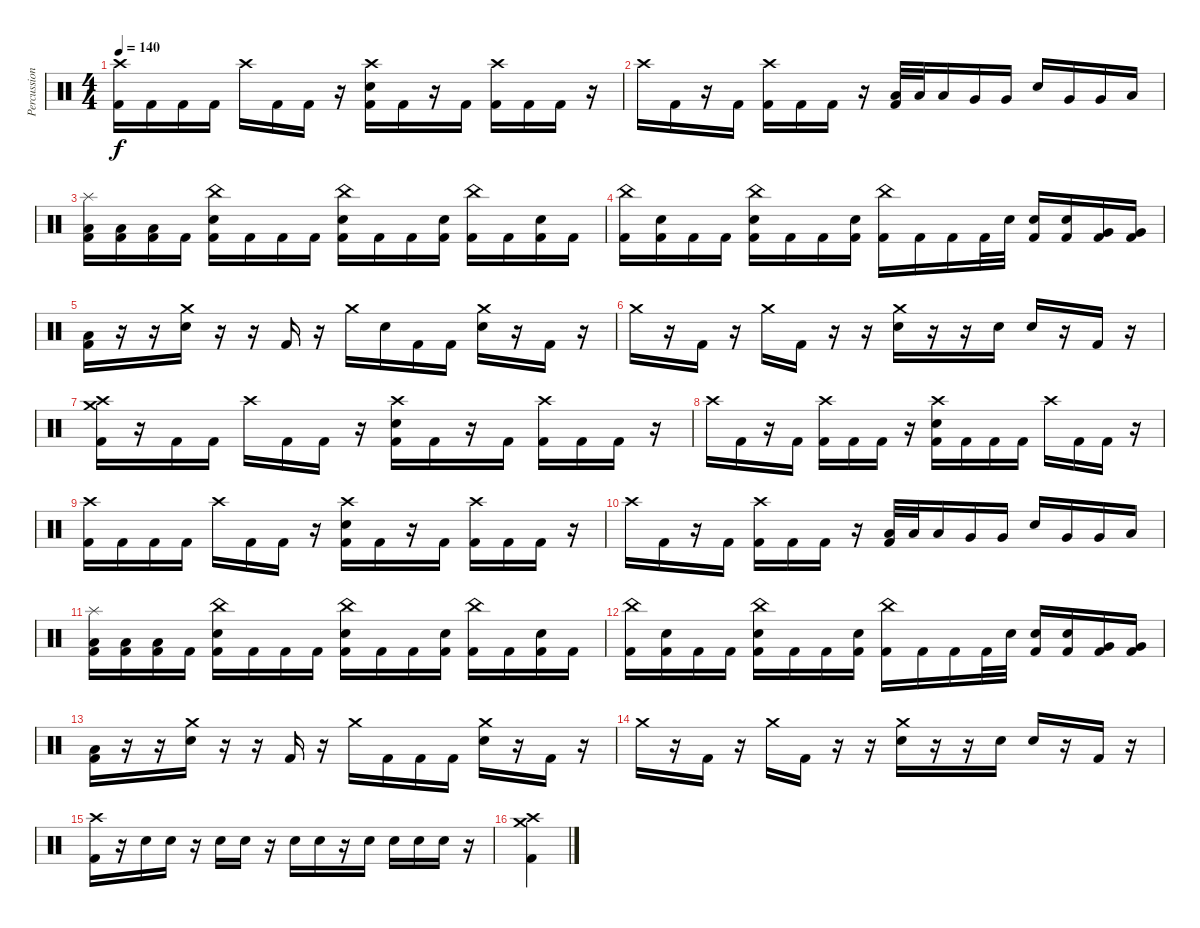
\track ("Percussion" "Percussion") {instrument percussion}
\staff {score}
\articulation defaults
\ts (4 4)
\tempo 140
\clef neutral
\ks c
("Crash high (hit)" "Kick (hit) 2").16{dy f} "Kick (hit) 2".16 "Kick (hit) 2".16 "Kick (hit) 2".16 "Crash high (hit)".16 "Kick (hit) 2".16 "Kick (hit) 2".16 r.16 ("Crash high (hit)" "Electric Snare (hit)" "Kick (hit) 2").16 "Kick (hit) 2".16 r.16 "Kick (hit) 2".16 ("Crash high (hit)" "Kick (hit) 2").16 "Kick (hit) 2".16 "Kick (hit) 2".16 r.16 |
"Crash high (hit)".16 "Kick (hit) 2".16 r.16 "Kick (hit) 2".16 ("Crash high (hit)" "Kick (hit) 2").16 "Kick (hit) 2".16 "Kick (hit) 2".16 r.16 ("Low Tom (hit)" "Kick (hit) 2").32 "Low Tom (hit)".32 "Low Tom (hit)".16 "Very Low Tom (hit)".16 "Very Low Tom (hit)".16 "Electric Snare (hit)".16 "Very Low Tom (hit)".16 "Very Low Tom (hit)".16 "Low Floor Tom (hit)".16 |
("Splash (hit)" "Low Floor Tom (hit)" "Kick (hit) 2").16 ("Low Floor Tom (hit)" "Kick (hit) 2").16 ("Low Floor Tom (hit)" "Kick (hit) 2").16 "Kick (hit) 2".16 ("China (hit)" "Electric Snare (hit)" "Kick (hit) 2").16 "Kick (hit) 2".16 "Kick (hit) 2".16 "Kick (hit) 2".16 ("China (hit)" "Electric Snare (hit)" "Kick (hit) 2").16 "Kick (hit) 2".16 "Kick (hit) 2".16 ("Electric Snare (hit)" "Kick (hit) 2").16 ("China (hit)" "Kick (hit) 2").16 "Kick (hit) 2".16 ("Electric Snare (hit)" "Kick (hit) 2").16 "Kick (hit) 2".16 |
("China (hit)" "Kick (hit) 2").16 ("Electric Snare (hit)" "Kick (hit) 2").16 "Kick (hit) 2".16 "Kick (hit) 2".16 ("China (hit)" "Electric Snare (hit)" "Kick (hit) 2").16 "Kick (hit) 2".16 "Kick (hit) 2".16 ("Electric Snare (hit)" "Kick (hit) 2").16 ("China (hit)" "Kick (hit) 2").16 "Kick (hit) 2".16 "Kick (hit) 2".16 "Kick (hit) 2".32 "Electric Snare (hit)".32 ("Electric Snare (hit)" "Kick (hit) 2").16 ("Electric Snare (hit)" "Kick (hit) 2").16 ("Very Low Tom (hit)" "Kick (hit) 2").16 ("Very Low Tom (hit)" "Kick (hit) 2").16 |
("Low Floor Tom (hit)" "Kick (hit) 2").16 r.16 r.16 ("Crash medium (hit)" "Electric Snare (hit)").16 r.16 r.16 "Kick (hit) 2".16 r.16 "Crash medium (hit)".16 "Electric Snare (hit)".16 "Kick (hit) 2".16 "Kick (hit) 2".16 ("Crash medium (hit)" "Electric Snare (hit)").16 r.16 "Kick (hit) 2".16 r.16 |
"Crash medium (hit)".16 r.16 "Kick (hit) 2".16 r.16 "Crash medium (hit)".16 "Kick (hit) 2".16 r.16 r.16 ("Crash medium (hit)" "Electric Snare (hit)").16 r.16 r.16 "Electric Snare (hit)".16 "Electric Snare (hit)".16 r.16 "Kick (hit) 2".16 r.16 |
("Crash high (hit)" "Crash medium (hit)" "Kick (hit) 2").16 r.16 "Kick (hit) 2".16 "Kick (hit) 2".16 "Crash high (hit)".16 "Kick (hit) 2".16 "Kick (hit) 2".16 r.16 ("Crash high (hit)" "Electric Snare (hit)" "Kick (hit) 2").16 "Kick (hit) 2".16 r.16 "Kick (hit) 2".16 ("Crash high (hit)" "Kick (hit) 2").16 "Kick (hit) 2".16 "Kick (hit) 2".16 r.16 |
"Crash high (hit)".16 "Kick (hit) 2".16 r.16 "Kick (hit) 2".16 ("Crash high (hit)" "Kick (hit) 2").16 "Kick (hit) 2".16 "Kick (hit) 2".16 r.16 ("Crash high (hit)" "Electric Snare (hit)" "Kick (hit) 2").16 "Kick (hit) 2".16 "Kick (hit) 2".16 "Kick (hit) 2".16 "Crash high (hit)".16 "Kick (hit) 2".16 "Kick (hit) 2".16 r.16 |
("Crash high (hit)" "Kick (hit) 2").16 "Kick (hit) 2".16 "Kick (hit) 2".16 "Kick (hit) 2".16 "Crash high (hit)".16 "Kick (hit) 2".16 "Kick (hit) 2".16 r.16 ("Crash high (hit)" "Electric Snare (hit)" "Kick (hit) 2").16 "Kick (hit) 2".16 r.16 "Kick (hit) 2".16 ("Crash high (hit)" "Kick (hit) 2").16 "Kick (hit) 2".16 "Kick (hit) 2".16 r.16 |
"Crash high (hit)".16 "Kick (hit) 2".16 r.16 "Kick (hit) 2".16 ("Crash high (hit)" "Kick (hit) 2").16 "Kick (hit) 2".16 "Kick (hit) 2".16 r.16 ("Low Tom (hit)" "Kick (hit) 2").32 "Low Tom (hit)".32 "Low Tom (hit)".16 "Very Low Tom (hit)".16 "Very Low Tom (hit)".16 "Electric Snare (hit)".16 "Very Low Tom (hit)".16 "Very Low Tom (hit)".16 "Low Floor Tom (hit)".16 |
("Splash (hit)" "Low Floor Tom (hit)" "Kick (hit) 2").16 ("Low Floor Tom (hit)" "Kick (hit) 2").16 ("Low Floor Tom (hit)" "Kick (hit) 2").16 "Kick (hit) 2".16 ("China (hit)" "Electric Snare (hit)" "Kick (hit) 2").16 "Kick (hit) 2".16 "Kick (hit) 2".16 "Kick (hit) 2".16 ("China (hit)" "Electric Snare (hit)" "Kick (hit) 2").16 "Kick (hit) 2".16 "Kick (hit) 2".16 ("Electric Snare (hit)" "Kick (hit) 2").16 ("China (hit)" "Kick (hit) 2").16 "Kick (hit) 2".16 ("Electric Snare (hit)" "Kick (hit) 2").16 "Kick (hit) 2".16 |
("China (hit)" "Kick (hit) 2").16 ("Electric Snare (hit)" "Kick (hit) 2").16 "Kick (hit) 2".16 "Kick (hit) 2".16 ("China (hit)" "Electric Snare (hit)" "Kick (hit) 2").16 "Kick (hit) 2".16 "Kick (hit) 2".16 ("Electric Snare (hit)" "Kick (hit) 2").16 ("China (hit)" "Kick (hit) 2").16 "Kick (hit) 2".16 "Kick (hit) 2".16 "Kick (hit) 2".32 "Electric Snare (hit)".32 ("Electric Snare (hit)" "Kick (hit) 2").16 ("Electric Snare (hit)" "Kick (hit) 2").16 ("Very Low Tom (hit)" "Kick (hit) 2").16 ("Very Low Tom (hit)" "Kick (hit) 2").16 |
("Low Floor Tom (hit)" "Kick (hit) 2").16 r.16 r.16 ("Crash medium (hit)" "Electric Snare (hit)").16 r.16 r.16 "Kick (hit) 2".16 r.16 "Crash medium (hit)".16 "Kick (hit) 2".16 "Kick (hit) 2".16 "Kick (hit) 2".16 ("Crash medium (hit)" "Electric Snare (hit)").16 r.16 "Kick (hit) 2".16 r.16 |
"Crash medium (hit)".16 r.16 "Kick (hit) 2".16 r.16 "Crash medium (hit)".16 "Kick (hit) 2".16 r.16 r.16 ("Crash medium (hit)" "Electric Snare (hit)").16 r.16 r.16 "Electric Snare (hit)".16 "Electric Snare (hit)".16 r.16 "Kick (hit) 2".16 r.16 |
("Crash high (hit)" "Kick (hit) 2").16 r.16 "Electric Snare (hit)".16 "Electric Snare (hit)".16 r.16 "Electric Snare (hit)".16 "Electric Snare (hit)".16 r.16 "Electric Snare (hit)".16 "Electric Snare (hit)".16 r.16 "Electric Snare (hit)".16 "Electric Snare (hit)".16 "Electric Snare (hit)".16 "Electric Snare (hit)".16 r.16 |
("Crash medium (hit)" "Crash high (hit)" "Kick (hit) 2").4
